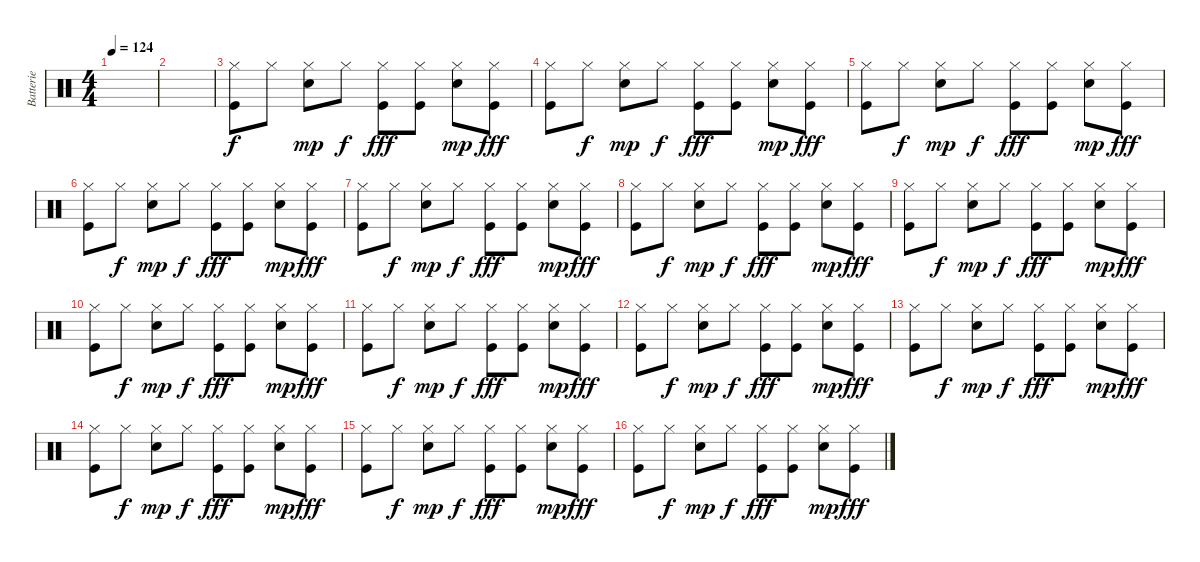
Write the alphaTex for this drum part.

\track ("Batterie" "Batterie") {instrument percussion}
\staff {score}
\articulation defaults
\ts (4 4)
\tempo 124
\clef neutral
\ks c
|
|
("Hi-Hat (closed)" "Kick (hit)").8 "Hi-Hat (closed)".8{dy f} ("Hi-Hat (closed)" "Electric Snare (hit)").8{dy mp} "Hi-Hat (closed)".8{dy f} ("Hi-Hat (closed)" "Kick (hit)").8{dy fff} ("Hi-Hat (closed)" "Kick (hit)").8 ("Hi-Hat (closed)" "Electric Snare (hit)").8{dy mp} ("Hi-Hat (closed)" "Kick (hit)").8{dy fff} |
("Hi-Hat (closed)" "Kick (hit)").8 "Hi-Hat (closed)".8{dy f} ("Hi-Hat (closed)" "Electric Snare (hit)").8{dy mp} "Hi-Hat (closed)".8{dy f} ("Hi-Hat (closed)" "Kick (hit)").8{dy fff} ("Hi-Hat (closed)" "Kick (hit)").8 ("Hi-Hat (closed)" "Electric Snare (hit)").8{dy mp} ("Hi-Hat (closed)" "Kick (hit)").8{dy fff} |
("Hi-Hat (closed)" "Kick (hit)").8 "Hi-Hat (closed)".8{dy f} ("Hi-Hat (closed)" "Electric Snare (hit)").8{dy mp} "Hi-Hat (closed)".8{dy f} ("Hi-Hat (closed)" "Kick (hit)").8{dy fff} ("Hi-Hat (closed)" "Kick (hit)").8 ("Hi-Hat (closed)" "Electric Snare (hit)").8{dy mp} ("Hi-Hat (closed)" "Kick (hit)").8{dy fff} |
("Hi-Hat (closed)" "Kick (hit)").8 "Hi-Hat (closed)".8{dy f} ("Hi-Hat (closed)" "Electric Snare (hit)").8{dy mp} "Hi-Hat (closed)".8{dy f} ("Hi-Hat (closed)" "Kick (hit)").8{dy fff} ("Hi-Hat (closed)" "Kick (hit)").8 ("Hi-Hat (closed)" "Electric Snare (hit)").8{dy mp} ("Hi-Hat (closed)" "Kick (hit)").8{dy fff} |
("Hi-Hat (closed)" "Kick (hit)").8 "Hi-Hat (closed)".8{dy f} ("Hi-Hat (closed)" "Electric Snare (hit)").8{dy mp} "Hi-Hat (closed)".8{dy f} ("Hi-Hat (closed)" "Kick (hit)").8{dy fff} ("Hi-Hat (closed)" "Kick (hit)").8 ("Hi-Hat (closed)" "Electric Snare (hit)").8{dy mp} ("Hi-Hat (closed)" "Kick (hit)").8{dy fff} |
("Hi-Hat (closed)" "Kick (hit)").8 "Hi-Hat (closed)".8{dy f} ("Hi-Hat (closed)" "Electric Snare (hit)").8{dy mp} "Hi-Hat (closed)".8{dy f} ("Hi-Hat (closed)" "Kick (hit)").8{dy fff} ("Hi-Hat (closed)" "Kick (hit)").8 ("Hi-Hat (closed)" "Electric Snare (hit)").8{dy mp} ("Hi-Hat (closed)" "Kick (hit)").8{dy fff} |
("Hi-Hat (closed)" "Kick (hit)").8 "Hi-Hat (closed)".8{dy f} ("Hi-Hat (closed)" "Electric Snare (hit)").8{dy mp} "Hi-Hat (closed)".8{dy f} ("Hi-Hat (closed)" "Kick (hit)").8{dy fff} ("Hi-Hat (closed)" "Kick (hit)").8 ("Hi-Hat (closed)" "Electric Snare (hit)").8{dy mp} ("Hi-Hat (closed)" "Kick (hit)").8{dy fff} |
("Hi-Hat (closed)" "Kick (hit)").8 "Hi-Hat (closed)".8{dy f} ("Hi-Hat (closed)" "Electric Snare (hit)").8{dy mp} "Hi-Hat (closed)".8{dy f} ("Hi-Hat (closed)" "Kick (hit)").8{dy fff} ("Hi-Hat (closed)" "Kick (hit)").8 ("Hi-Hat (closed)" "Electric Snare (hit)").8{dy mp} ("Hi-Hat (closed)" "Kick (hit)").8{dy fff} |
("Hi-Hat (closed)" "Kick (hit)").8 "Hi-Hat (closed)".8{dy f} ("Hi-Hat (closed)" "Electric Snare (hit)").8{dy mp} "Hi-Hat (closed)".8{dy f} ("Hi-Hat (closed)" "Kick (hit)").8{dy fff} ("Hi-Hat (closed)" "Kick (hit)").8 ("Hi-Hat (closed)" "Electric Snare (hit)").8{dy mp} ("Hi-Hat (closed)" "Kick (hit)").8{dy fff} |
("Hi-Hat (closed)" "Kick (hit)").8 "Hi-Hat (closed)".8{dy f} ("Hi-Hat (closed)" "Electric Snare (hit)").8{dy mp} "Hi-Hat (closed)".8{dy f} ("Hi-Hat (closed)" "Kick (hit)").8{dy fff} ("Hi-Hat (closed)" "Kick (hit)").8 ("Hi-Hat (closed)" "Electric Snare (hit)").8{dy mp} ("Hi-Hat (closed)" "Kick (hit)").8{dy fff} |
("Hi-Hat (closed)" "Kick (hit)").8 "Hi-Hat (closed)".8{dy f} ("Hi-Hat (closed)" "Electric Snare (hit)").8{dy mp} "Hi-Hat (closed)".8{dy f} ("Hi-Hat (closed)" "Kick (hit)").8{dy fff} ("Hi-Hat (closed)" "Kick (hit)").8 ("Hi-Hat (closed)" "Electric Snare (hit)").8{dy mp} ("Hi-Hat (closed)" "Kick (hit)").8{dy fff} |
("Hi-Hat (closed)" "Kick (hit)").8 "Hi-Hat (closed)".8{dy f} ("Hi-Hat (closed)" "Electric Snare (hit)").8{dy mp} "Hi-Hat (closed)".8{dy f} ("Hi-Hat (closed)" "Kick (hit)").8{dy fff} ("Hi-Hat (closed)" "Kick (hit)").8 ("Hi-Hat (closed)" "Electric Snare (hit)").8{dy mp} ("Hi-Hat (closed)" "Kick (hit)").8{dy fff} |
("Hi-Hat (closed)" "Kick (hit)").8 "Hi-Hat (closed)".8{dy f} ("Hi-Hat (closed)" "Electric Snare (hit)").8{dy mp} "Hi-Hat (closed)".8{dy f} ("Hi-Hat (closed)" "Kick (hit)").8{dy fff} ("Hi-Hat (closed)" "Kick (hit)").8 ("Hi-Hat (closed)" "Electric Snare (hit)").8{dy mp} ("Hi-Hat (closed)" "Kick (hit)").8{dy fff} |
("Hi-Hat (closed)" "Kick (hit)").8 "Hi-Hat (closed)".8{dy f} ("Hi-Hat (closed)" "Electric Snare (hit)").8{dy mp} "Hi-Hat (closed)".8{dy f} ("Hi-Hat (closed)" "Kick (hit)").8{dy fff} ("Hi-Hat (closed)" "Kick (hit)").8 ("Hi-Hat (closed)" "Electric Snare (hit)").8{dy mp} ("Hi-Hat (closed)" "Kick (hit)").8{dy fff}
